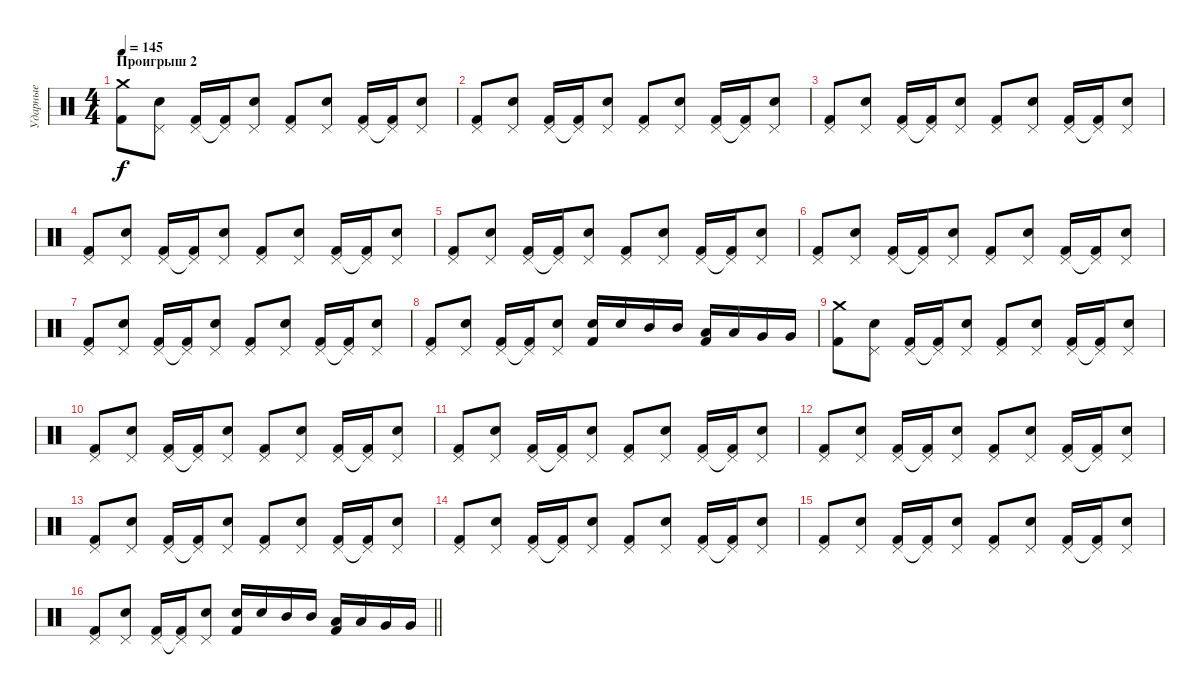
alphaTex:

\track ("Ударные" "Ударные") {instrument percussion}
\staff {score}
\articulation defaults
\ts (4 4)
\section ("" "Проигрыш 2")
\tempo 145
\clef neutral
\ks c
("Crash medium (hit)" "Kick (hit) 2").8{dy f} ("Pedal Hi-Hat (hit)" "Electric Snare (hit)").8 ("Pedal Hi-Hat (hit)" "Kick (hit) 2").16 ("Pedal Hi-Hat (hit)"{t} "Kick (hit) 2").16 ("Pedal Hi-Hat (hit)" "Electric Snare (hit)").8 ("Pedal Hi-Hat (hit)" "Kick (hit) 2").8 ("Pedal Hi-Hat (hit)" "Electric Snare (hit)").8 ("Pedal Hi-Hat (hit)" "Kick (hit) 2").16 ("Pedal Hi-Hat (hit)"{t} "Kick (hit) 2").16 ("Pedal Hi-Hat (hit)" "Electric Snare (hit)").8 |
("Pedal Hi-Hat (hit)" "Kick (hit) 2").8 ("Pedal Hi-Hat (hit)" "Electric Snare (hit)").8 ("Pedal Hi-Hat (hit)" "Kick (hit) 2").16 ("Pedal Hi-Hat (hit)"{t} "Kick (hit) 2").16 ("Pedal Hi-Hat (hit)" "Electric Snare (hit)").8 ("Pedal Hi-Hat (hit)" "Kick (hit) 2").8 ("Pedal Hi-Hat (hit)" "Electric Snare (hit)").8 ("Pedal Hi-Hat (hit)" "Kick (hit) 2").16 ("Pedal Hi-Hat (hit)"{t} "Kick (hit) 2").16 ("Pedal Hi-Hat (hit)" "Electric Snare (hit)").8 |
("Pedal Hi-Hat (hit)" "Kick (hit) 2").8 ("Pedal Hi-Hat (hit)" "Electric Snare (hit)").8 ("Pedal Hi-Hat (hit)" "Kick (hit) 2").16 ("Pedal Hi-Hat (hit)"{t} "Kick (hit) 2").16 ("Pedal Hi-Hat (hit)" "Electric Snare (hit)").8 ("Pedal Hi-Hat (hit)" "Kick (hit) 2").8 ("Pedal Hi-Hat (hit)" "Electric Snare (hit)").8 ("Pedal Hi-Hat (hit)" "Kick (hit) 2").16 ("Pedal Hi-Hat (hit)"{t} "Kick (hit) 2").16 ("Pedal Hi-Hat (hit)" "Electric Snare (hit)").8 |
("Pedal Hi-Hat (hit)" "Kick (hit) 2").8 ("Pedal Hi-Hat (hit)" "Electric Snare (hit)").8 ("Pedal Hi-Hat (hit)" "Kick (hit) 2").16 ("Pedal Hi-Hat (hit)"{t} "Kick (hit) 2").16 ("Pedal Hi-Hat (hit)" "Electric Snare (hit)").8 ("Pedal Hi-Hat (hit)" "Kick (hit) 2").8 ("Pedal Hi-Hat (hit)" "Electric Snare (hit)").8 ("Pedal Hi-Hat (hit)" "Kick (hit) 2").16 ("Pedal Hi-Hat (hit)"{t} "Kick (hit) 2").16 ("Pedal Hi-Hat (hit)" "Electric Snare (hit)").8 |
("Pedal Hi-Hat (hit)" "Kick (hit) 2").8 ("Pedal Hi-Hat (hit)" "Electric Snare (hit)").8 ("Pedal Hi-Hat (hit)" "Kick (hit) 2").16 ("Pedal Hi-Hat (hit)"{t} "Kick (hit) 2").16 ("Pedal Hi-Hat (hit)" "Electric Snare (hit)").8 ("Pedal Hi-Hat (hit)" "Kick (hit) 2").8 ("Pedal Hi-Hat (hit)" "Electric Snare (hit)").8 ("Pedal Hi-Hat (hit)" "Kick (hit) 2").16 ("Pedal Hi-Hat (hit)"{t} "Kick (hit) 2").16 ("Pedal Hi-Hat (hit)" "Electric Snare (hit)").8 |
("Pedal Hi-Hat (hit)" "Kick (hit) 2").8 ("Pedal Hi-Hat (hit)" "Electric Snare (hit)").8 ("Pedal Hi-Hat (hit)" "Kick (hit) 2").16 ("Pedal Hi-Hat (hit)"{t} "Kick (hit) 2").16 ("Pedal Hi-Hat (hit)" "Electric Snare (hit)").8 ("Pedal Hi-Hat (hit)" "Kick (hit) 2").8 ("Pedal Hi-Hat (hit)" "Electric Snare (hit)").8 ("Pedal Hi-Hat (hit)" "Kick (hit) 2").16 ("Pedal Hi-Hat (hit)"{t} "Kick (hit) 2").16 ("Pedal Hi-Hat (hit)" "Electric Snare (hit)").8 |
("Pedal Hi-Hat (hit)" "Kick (hit) 2").8 ("Pedal Hi-Hat (hit)" "Electric Snare (hit)").8 ("Pedal Hi-Hat (hit)" "Kick (hit) 2").16 ("Pedal Hi-Hat (hit)"{t} "Kick (hit) 2").16 ("Pedal Hi-Hat (hit)" "Electric Snare (hit)").8 ("Pedal Hi-Hat (hit)" "Kick (hit) 2").8 ("Pedal Hi-Hat (hit)" "Electric Snare (hit)").8 ("Pedal Hi-Hat (hit)" "Kick (hit) 2").16 ("Pedal Hi-Hat (hit)"{t} "Kick (hit) 2").16 ("Pedal Hi-Hat (hit)" "Electric Snare (hit)").8 |
("Pedal Hi-Hat (hit)" "Kick (hit) 2").8 ("Pedal Hi-Hat (hit)" "Electric Snare (hit)").8 ("Pedal Hi-Hat (hit)" "Kick (hit) 2").16 ("Pedal Hi-Hat (hit)"{t} "Kick (hit) 2").16 ("Pedal Hi-Hat (hit)" "Electric Snare (hit)").8 ("Electric Snare (hit)" "Kick (hit) 2").16 "Electric Snare (hit)".16 "Mid Tom (hit)".16 "Mid Tom (hit)".16 ("Low Tom (hit)" "Kick (hit) 2").16 "Low Tom (hit)".16 "Very Low Tom (hit)".16 "Very Low Tom (hit)".16 |
("Crash medium (hit)" "Kick (hit) 2").8 ("Pedal Hi-Hat (hit)" "Electric Snare (hit)").8 ("Pedal Hi-Hat (hit)" "Kick (hit) 2").16 ("Pedal Hi-Hat (hit)"{t} "Kick (hit) 2").16 ("Pedal Hi-Hat (hit)" "Electric Snare (hit)").8 ("Pedal Hi-Hat (hit)" "Kick (hit) 2").8 ("Pedal Hi-Hat (hit)" "Electric Snare (hit)").8 ("Pedal Hi-Hat (hit)" "Kick (hit) 2").16 ("Pedal Hi-Hat (hit)"{t} "Kick (hit) 2").16 ("Pedal Hi-Hat (hit)" "Electric Snare (hit)").8 |
("Pedal Hi-Hat (hit)" "Kick (hit) 2").8 ("Pedal Hi-Hat (hit)" "Electric Snare (hit)").8 ("Pedal Hi-Hat (hit)" "Kick (hit) 2").16 ("Pedal Hi-Hat (hit)"{t} "Kick (hit) 2").16 ("Pedal Hi-Hat (hit)" "Electric Snare (hit)").8 ("Pedal Hi-Hat (hit)" "Kick (hit) 2").8 ("Pedal Hi-Hat (hit)" "Electric Snare (hit)").8 ("Pedal Hi-Hat (hit)" "Kick (hit) 2").16 ("Pedal Hi-Hat (hit)"{t} "Kick (hit) 2").16 ("Pedal Hi-Hat (hit)" "Electric Snare (hit)").8 |
("Pedal Hi-Hat (hit)" "Kick (hit) 2").8 ("Pedal Hi-Hat (hit)" "Electric Snare (hit)").8 ("Pedal Hi-Hat (hit)" "Kick (hit) 2").16 ("Pedal Hi-Hat (hit)"{t} "Kick (hit) 2").16 ("Pedal Hi-Hat (hit)" "Electric Snare (hit)").8 ("Pedal Hi-Hat (hit)" "Kick (hit) 2").8 ("Pedal Hi-Hat (hit)" "Electric Snare (hit)").8 ("Pedal Hi-Hat (hit)" "Kick (hit) 2").16 ("Pedal Hi-Hat (hit)"{t} "Kick (hit) 2").16 ("Pedal Hi-Hat (hit)" "Electric Snare (hit)").8 |
("Pedal Hi-Hat (hit)" "Kick (hit) 2").8 ("Pedal Hi-Hat (hit)" "Electric Snare (hit)").8 ("Pedal Hi-Hat (hit)" "Kick (hit) 2").16 ("Pedal Hi-Hat (hit)"{t} "Kick (hit) 2").16 ("Pedal Hi-Hat (hit)" "Electric Snare (hit)").8 ("Pedal Hi-Hat (hit)" "Kick (hit) 2").8 ("Pedal Hi-Hat (hit)" "Electric Snare (hit)").8 ("Pedal Hi-Hat (hit)" "Kick (hit) 2").16 ("Pedal Hi-Hat (hit)"{t} "Kick (hit) 2").16 ("Pedal Hi-Hat (hit)" "Electric Snare (hit)").8 |
("Pedal Hi-Hat (hit)" "Kick (hit) 2").8 ("Pedal Hi-Hat (hit)" "Electric Snare (hit)").8 ("Pedal Hi-Hat (hit)" "Kick (hit) 2").16 ("Pedal Hi-Hat (hit)"{t} "Kick (hit) 2").16 ("Pedal Hi-Hat (hit)" "Electric Snare (hit)").8 ("Pedal Hi-Hat (hit)" "Kick (hit) 2").8 ("Pedal Hi-Hat (hit)" "Electric Snare (hit)").8 ("Pedal Hi-Hat (hit)" "Kick (hit) 2").16 ("Pedal Hi-Hat (hit)"{t} "Kick (hit) 2").16 ("Pedal Hi-Hat (hit)" "Electric Snare (hit)").8 |
("Pedal Hi-Hat (hit)" "Kick (hit) 2").8 ("Pedal Hi-Hat (hit)" "Electric Snare (hit)").8 ("Pedal Hi-Hat (hit)" "Kick (hit) 2").16 ("Pedal Hi-Hat (hit)"{t} "Kick (hit) 2").16 ("Pedal Hi-Hat (hit)" "Electric Snare (hit)").8 ("Pedal Hi-Hat (hit)" "Kick (hit) 2").8 ("Pedal Hi-Hat (hit)" "Electric Snare (hit)").8 ("Pedal Hi-Hat (hit)" "Kick (hit) 2").16 ("Pedal Hi-Hat (hit)"{t} "Kick (hit) 2").16 ("Pedal Hi-Hat (hit)" "Electric Snare (hit)").8 |
("Pedal Hi-Hat (hit)" "Kick (hit) 2").8 ("Pedal Hi-Hat (hit)" "Electric Snare (hit)").8 ("Pedal Hi-Hat (hit)" "Kick (hit) 2").16 ("Pedal Hi-Hat (hit)"{t} "Kick (hit) 2").16 ("Pedal Hi-Hat (hit)" "Electric Snare (hit)").8 ("Pedal Hi-Hat (hit)" "Kick (hit) 2").8 ("Pedal Hi-Hat (hit)" "Electric Snare (hit)").8 ("Pedal Hi-Hat (hit)" "Kick (hit) 2").16 ("Pedal Hi-Hat (hit)"{t} "Kick (hit) 2").16 ("Pedal Hi-Hat (hit)" "Electric Snare (hit)").8 |
\barLineRight lightlight
("Pedal Hi-Hat (hit)" "Kick (hit) 2").8 ("Pedal Hi-Hat (hit)" "Electric Snare (hit)").8 ("Pedal Hi-Hat (hit)" "Kick (hit) 2").16 ("Pedal Hi-Hat (hit)"{t} "Kick (hit) 2").16 ("Pedal Hi-Hat (hit)" "Electric Snare (hit)").8 ("Electric Snare (hit)" "Kick (hit) 2").16 "Electric Snare (hit)".16 "Mid Tom (hit)".16 "Mid Tom (hit)".16 ("Low Tom (hit)" "Kick (hit) 2").16 "Low Tom (hit)".16 "Very Low Tom (hit)".16 "Very Low Tom (hit)".16
